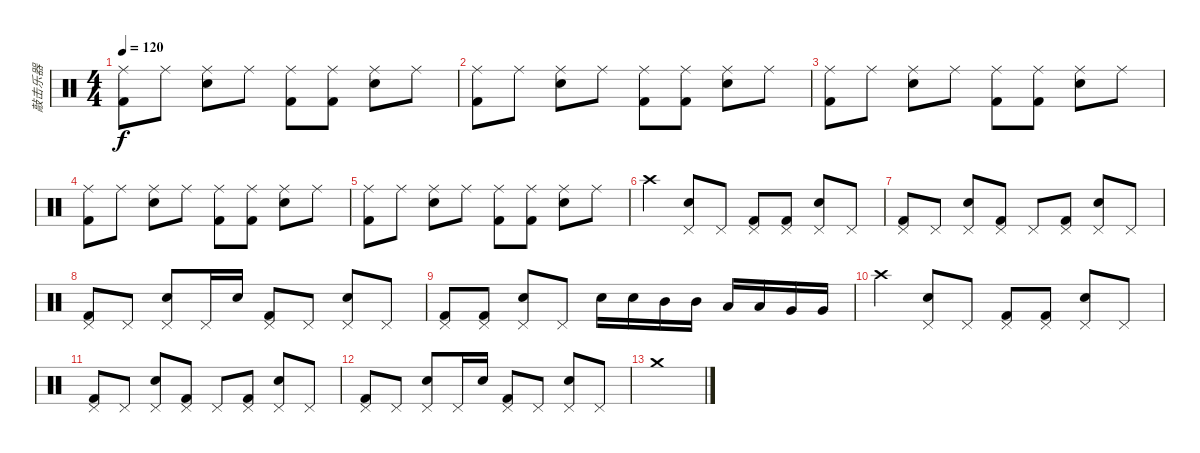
\track ("敲击乐器" "敲击乐器") {instrument percussion}
\staff {score}
\articulation defaults
\ts (4 4)
\tempo 120
\clef neutral
\ks c
("Kick (hit) 2" "Ride (middle)").8{dy f} "Ride (middle)".8 ("Electric Snare (hit)" "Ride (middle)").8 "Ride (middle)".8 ("Kick (hit) 2" "Ride (middle)").8 ("Kick (hit) 2" "Ride (middle)").8 ("Electric Snare (hit)" "Ride (middle)").8 "Ride (middle)".8 |
("Kick (hit) 2" "Ride (middle)").8 "Ride (middle)".8 ("Electric Snare (hit)" "Ride (middle)").8 "Ride (middle)".8 ("Kick (hit) 2" "Ride (middle)").8 ("Kick (hit) 2" "Ride (middle)").8 ("Electric Snare (hit)" "Ride (middle)").8 "Ride (middle)".8 |
("Kick (hit) 2" "Ride (middle)").8 "Ride (middle)".8 ("Electric Snare (hit)" "Ride (middle)").8 "Ride (middle)".8 ("Kick (hit) 2" "Ride (middle)").8 ("Kick (hit) 2" "Ride (middle)").8 ("Electric Snare (hit)" "Ride (middle)").8 "Ride (middle)".8 |
("Kick (hit) 2" "Ride (middle)").8 "Ride (middle)".8 ("Electric Snare (hit)" "Ride (middle)").8 "Ride (middle)".8 ("Kick (hit) 2" "Ride (middle)").8 ("Kick (hit) 2" "Ride (middle)").8 ("Electric Snare (hit)" "Ride (middle)").8 "Ride (middle)".8 |
("Kick (hit) 2" "Ride (middle)").8 "Ride (middle)".8 ("Electric Snare (hit)" "Ride (middle)").8 "Ride (middle)".8 ("Kick (hit) 2" "Ride (middle)").8 ("Kick (hit) 2" "Ride (middle)").8 ("Electric Snare (hit)" "Ride (middle)").8 "Ride (middle)".8 |
"Crash high (hit)".4 ("Electric Snare (hit)" "Pedal Hi-Hat (hit)").8 "Pedal Hi-Hat (hit)".8 ("Kick (hit) 2" "Pedal Hi-Hat (hit)").8 ("Kick (hit) 2" "Pedal Hi-Hat (hit)").8 ("Electric Snare (hit)" "Pedal Hi-Hat (hit)").8 "Pedal Hi-Hat (hit)".8 |
("Kick (hit) 2" "Pedal Hi-Hat (hit)").8 "Pedal Hi-Hat (hit)".8 ("Electric Snare (hit)" "Pedal Hi-Hat (hit)").8 ("Kick (hit) 2" "Pedal Hi-Hat (hit)").8 "Pedal Hi-Hat (hit)".8 ("Kick (hit) 2" "Pedal Hi-Hat (hit)").8 ("Electric Snare (hit)" "Pedal Hi-Hat (hit)").8 "Pedal Hi-Hat (hit)".8 |
("Kick (hit) 2" "Pedal Hi-Hat (hit)").8 "Pedal Hi-Hat (hit)".8 ("Electric Snare (hit)" "Pedal Hi-Hat (hit)").8 "Pedal Hi-Hat (hit)".16 "Electric Snare (hit)".16 ("Kick (hit) 2" "Pedal Hi-Hat (hit)").8 "Pedal Hi-Hat (hit)".8 ("Electric Snare (hit)" "Pedal Hi-Hat (hit)").8 "Pedal Hi-Hat (hit)".8 |
("Kick (hit) 2" "Pedal Hi-Hat (hit)").8 ("Kick (hit) 2" "Pedal Hi-Hat (hit)").8 ("Electric Snare (hit)" "Pedal Hi-Hat (hit)").8 "Pedal Hi-Hat (hit)".8 "Electric Snare (hit)".16 "Electric Snare (hit)".16 "Mid Tom (hit)".16 "Mid Tom (hit)".16 "Low Tom (hit)".16 "Low Tom (hit)".16 "Very Low Tom (hit)".16 "Very Low Tom (hit)".16 |
"Crash high (hit)".4 ("Electric Snare (hit)" "Pedal Hi-Hat (hit)").8 "Pedal Hi-Hat (hit)".8 ("Kick (hit) 2" "Pedal Hi-Hat (hit)").8 ("Kick (hit) 2" "Pedal Hi-Hat (hit)").8 ("Electric Snare (hit)" "Pedal Hi-Hat (hit)").8 "Pedal Hi-Hat (hit)".8 |
("Kick (hit) 2" "Pedal Hi-Hat (hit)").8 "Pedal Hi-Hat (hit)".8 ("Electric Snare (hit)" "Pedal Hi-Hat (hit)").8 ("Kick (hit) 2" "Pedal Hi-Hat (hit)").8 "Pedal Hi-Hat (hit)".8 ("Kick (hit) 2" "Pedal Hi-Hat (hit)").8 ("Electric Snare (hit)" "Pedal Hi-Hat (hit)").8 "Pedal Hi-Hat (hit)".8 |
("Kick (hit) 2" "Pedal Hi-Hat (hit)").8 "Pedal Hi-Hat (hit)".8 ("Electric Snare (hit)" "Pedal Hi-Hat (hit)").8 "Pedal Hi-Hat (hit)".16 "Electric Snare (hit)".16 ("Kick (hit) 2" "Pedal Hi-Hat (hit)").8 "Pedal Hi-Hat (hit)".8 ("Electric Snare (hit)" "Pedal Hi-Hat (hit)").8 "Pedal Hi-Hat (hit)".8 |
"Crash medium (hit)".1
